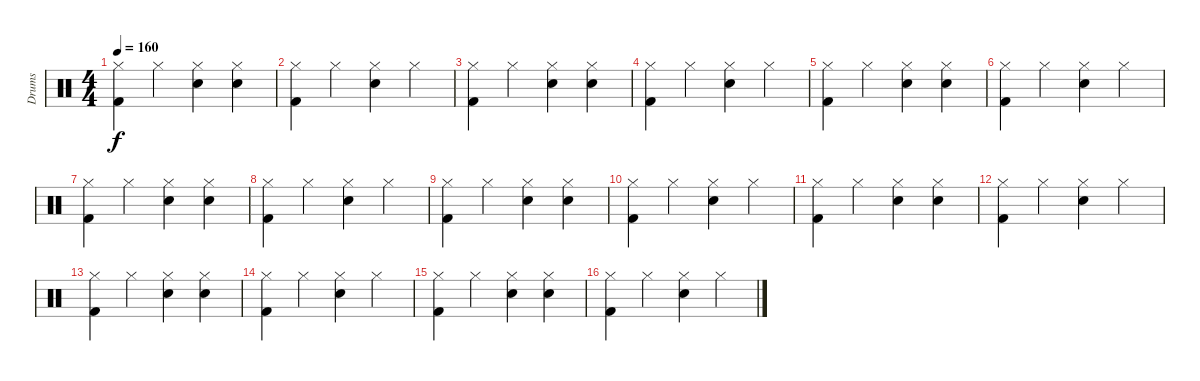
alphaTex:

\track ("Drums" "Drums") {instrument percussion}
\staff {score}
\articulation defaults
\ts (4 4)
\tempo 160
\clef neutral
\ks c
("Hi-Hat (closed)" "Kick (hit) 2").4{dy f} "Hi-Hat (closed)".4 ("Hi-Hat (closed)" "Snare (hit) 2").4 ("Hi-Hat (closed)" "Snare (hit) 2").4 |
("Hi-Hat (closed)" "Kick (hit) 2").4{volume 7} "Hi-Hat (closed)".4 ("Hi-Hat (closed)" "Snare (hit) 2").4 "Hi-Hat (closed)".4 |
("Hi-Hat (closed)" "Kick (hit) 2").4 "Hi-Hat (closed)".4 ("Hi-Hat (closed)" "Snare (hit) 2").4 ("Hi-Hat (closed)" "Snare (hit) 2").4 |
("Hi-Hat (closed)" "Kick (hit) 2").4 "Hi-Hat (closed)".4 ("Hi-Hat (closed)" "Snare (hit) 2").4 "Hi-Hat (closed)".4 |
("Hi-Hat (closed)" "Kick (hit) 2").4 "Hi-Hat (closed)".4 ("Hi-Hat (closed)" "Snare (hit) 2").4 ("Hi-Hat (closed)" "Snare (hit) 2").4 |
("Hi-Hat (closed)" "Kick (hit) 2").4 "Hi-Hat (closed)".4 ("Hi-Hat (closed)" "Snare (hit) 2").4 "Hi-Hat (closed)".4 |
("Hi-Hat (closed)" "Kick (hit) 2").4 "Hi-Hat (closed)".4 ("Hi-Hat (closed)" "Snare (hit) 2").4 ("Hi-Hat (closed)" "Snare (hit) 2").4 |
("Hi-Hat (closed)" "Kick (hit) 2").4 "Hi-Hat (closed)".4 ("Hi-Hat (closed)" "Snare (hit) 2").4 "Hi-Hat (closed)".4 |
("Hi-Hat (closed)" "Kick (hit) 2").4 "Hi-Hat (closed)".4 ("Hi-Hat (closed)" "Snare (hit) 2").4 ("Hi-Hat (closed)" "Snare (hit) 2").4 |
("Hi-Hat (closed)" "Kick (hit) 2").4{volume 2} "Hi-Hat (closed)".4 ("Hi-Hat (closed)" "Snare (hit) 2").4 "Hi-Hat (closed)".4 |
("Hi-Hat (closed)" "Kick (hit) 2").4 "Hi-Hat (closed)".4 ("Hi-Hat (closed)" "Snare (hit) 2").4 ("Hi-Hat (closed)" "Snare (hit) 2").4 |
("Hi-Hat (closed)" "Kick (hit) 2").4 "Hi-Hat (closed)".4 ("Hi-Hat (closed)" "Snare (hit) 2").4 "Hi-Hat (closed)".4 |
("Hi-Hat (closed)" "Kick (hit) 2").4 "Hi-Hat (closed)".4 ("Hi-Hat (closed)" "Snare (hit) 2").4 ("Hi-Hat (closed)" "Snare (hit) 2").4 |
("Hi-Hat (closed)" "Kick (hit) 2").4 "Hi-Hat (closed)".4 ("Hi-Hat (closed)" "Snare (hit) 2").4 "Hi-Hat (closed)".4 |
("Hi-Hat (closed)" "Kick (hit) 2").4 "Hi-Hat (closed)".4 ("Hi-Hat (closed)" "Snare (hit) 2").4 ("Hi-Hat (closed)" "Snare (hit) 2").4 |
("Hi-Hat (closed)" "Kick (hit) 2").4 "Hi-Hat (closed)".4 ("Hi-Hat (closed)" "Snare (hit) 2").4 "Hi-Hat (closed)".4
